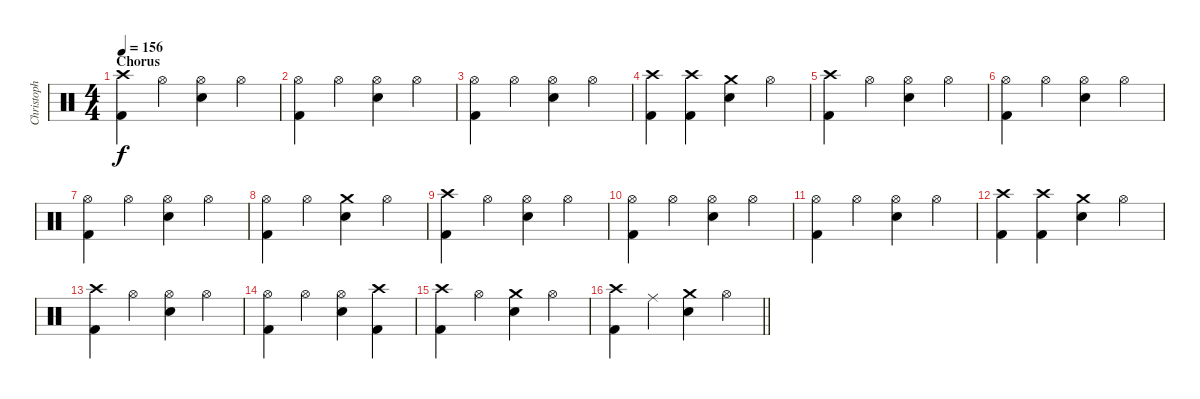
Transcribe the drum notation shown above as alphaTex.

\track ("Christoph Schneider" "Christoph ") {instrument percussion}
\staff {score}
\articulation defaults
\ts (4 4)
\section ("" "Chorus")
\tempo 156
\clef neutral
\ks c
("Crash high (hit)" "Kick (hit) 2").4{dy f} "Hi-Hat (open)".4 ("Hi-Hat (open)" "Snare (hit) 2").4 "Hi-Hat (open)".4 |
("Hi-Hat (open)" "Kick (hit) 2").4 "Hi-Hat (open)".4 ("Hi-Hat (open)" "Snare (hit) 2").4 "Hi-Hat (open)".4 |
("Hi-Hat (open)" "Kick (hit) 2").4 "Hi-Hat (open)".4 ("Hi-Hat (open)" "Snare (hit) 2").4 "Hi-Hat (open)".4 |
("Crash high (hit)" "Kick (hit) 2").4 ("Crash high (hit)" "Kick (hit) 2").4 ("Crash medium (hit)" "Snare (hit) 2").4 "Hi-Hat (open)".4 |
("Crash high (hit)" "Kick (hit) 2").4 "Hi-Hat (open)".4 ("Hi-Hat (open)" "Snare (hit) 2").4 "Hi-Hat (open)".4 |
("Hi-Hat (open)" "Kick (hit) 2").4 "Hi-Hat (open)".4 ("Hi-Hat (open)" "Snare (hit) 2").4 "Hi-Hat (open)".4 |
("Hi-Hat (open)" "Kick (hit) 2").4 "Hi-Hat (open)".4 ("Hi-Hat (open)" "Snare (hit) 2").4 "Hi-Hat (open)".4 |
("Hi-Hat (open)" "Kick (hit) 2").4 "Hi-Hat (open)".4 ("Crash medium (hit)" "Snare (hit) 2").4 "Hi-Hat (open)".4 |
("Crash high (hit)" "Kick (hit) 2").4 "Hi-Hat (open)".4 ("Hi-Hat (open)" "Snare (hit) 2").4 "Hi-Hat (open)".4 |
("Hi-Hat (open)" "Kick (hit) 2").4 "Hi-Hat (open)".4 ("Hi-Hat (open)" "Snare (hit) 2").4 "Hi-Hat (open)".4 |
("Hi-Hat (open)" "Kick (hit) 2").4 "Hi-Hat (open)".4 ("Hi-Hat (open)" "Snare (hit) 2").4 "Hi-Hat (open)".4 |
("Crash high (hit)" "Kick (hit) 2").4 ("Crash high (hit)" "Kick (hit) 2").4 ("Crash medium (hit)" "Snare (hit) 2").4 "Hi-Hat (open)".4 |
("Crash high (hit)" "Kick (hit) 2").4 "Hi-Hat (open)".4 ("Hi-Hat (open)" "Snare (hit) 2").4 "Hi-Hat (open)".4 |
("Hi-Hat (open)" "Kick (hit) 2").4 "Hi-Hat (open)".4 ("Hi-Hat (open)" "Snare (hit) 2").4 ("Crash high (hit)" "Kick (hit) 2").4 |
("Crash high (hit)" "Kick (hit) 2").4 "Hi-Hat (open)".4 ("Crash medium (hit)" "Snare (hit) 2").4 "Hi-Hat (open)".4 |
\barLineRight lightlight
("Crash high (hit)" "Kick (hit) 2").4 "Ride (middle)".4 ("Crash medium (hit)" "Snare (hit) 2").4 "Hi-Hat (open)".4
